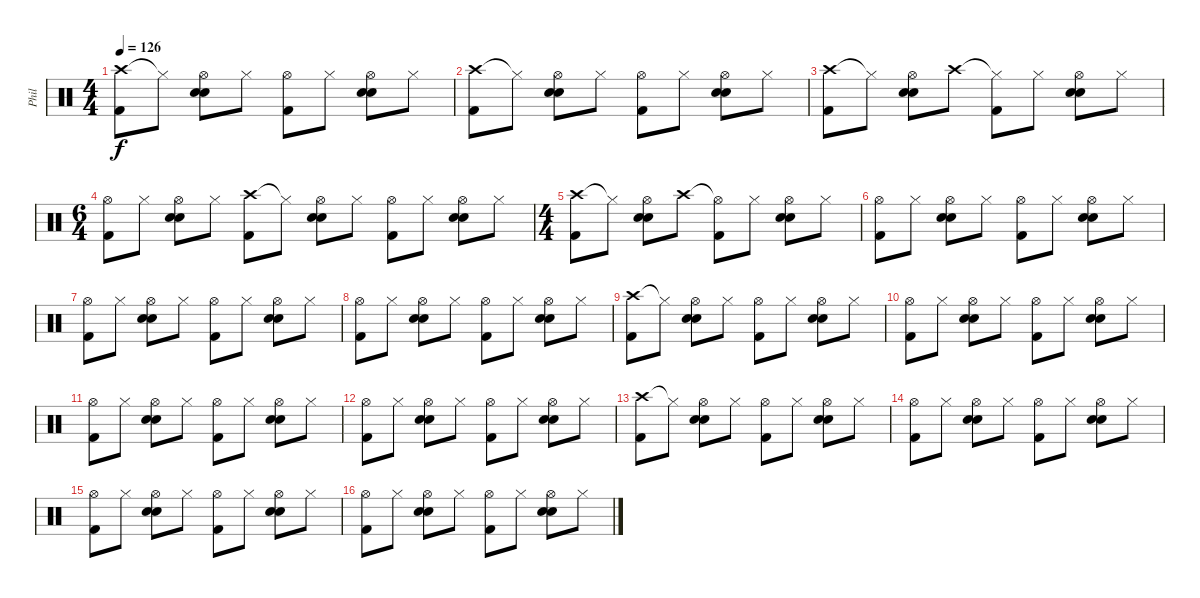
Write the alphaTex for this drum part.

\track ("Phil" "Phil") {instrument percussion}
\staff {score}
\articulation defaults
\ts (4 4)
\tempo 126
\clef neutral
\ks c
("Crash high (hit)" "Kick (hit) 2").8{dy f} "Hi-Hat (closed)"{t}.8 ("Hi-Hat (open)" "Snare (hit) 2" "Electric Snare (hit)").8 "Hi-Hat (closed)".8 ("Hi-Hat (open)" "Kick (hit) 2").8 "Hi-Hat (closed)".8 ("Hi-Hat (open)" "Snare (hit) 2" "Electric Snare (hit)").8 "Hi-Hat (closed)".8 |
("Crash high (hit)" "Kick (hit) 2").8 "Hi-Hat (closed)"{t}.8 ("Hi-Hat (open)" "Snare (hit) 2" "Electric Snare (hit)").8 "Hi-Hat (closed)".8 ("Hi-Hat (open)" "Kick (hit) 2").8 "Hi-Hat (closed)".8 ("Hi-Hat (open)" "Snare (hit) 2" "Electric Snare (hit)").8 "Hi-Hat (closed)".8 |
("Crash high (hit)" "Kick (hit) 2").8 "Hi-Hat (closed)"{t}.8 ("Hi-Hat (open)" "Snare (hit) 2" "Electric Snare (hit)").8 "Crash high (hit)".8 ("Hi-Hat (closed)"{t} "Kick (hit) 2").8 "Hi-Hat (closed)".8 ("Hi-Hat (open)" "Snare (hit) 2" "Electric Snare (hit)").8 "Hi-Hat (closed)".8 |
\ts (6 4)
("Hi-Hat (open)" "Kick (hit) 2").8 "Hi-Hat (closed)".8 ("Hi-Hat (open)" "Snare (hit) 2" "Electric Snare (hit)").8 "Hi-Hat (closed)".8 ("Crash high (hit)" "Kick (hit) 2").8 "Hi-Hat (closed)"{t}.8 ("Hi-Hat (open)" "Snare (hit) 2" "Electric Snare (hit)").8 "Hi-Hat (closed)".8 ("Hi-Hat (open)" "Kick (hit) 2").8 "Hi-Hat (closed)".8 ("Hi-Hat (open)" "Snare (hit) 2" "Electric Snare (hit)").8 "Hi-Hat (closed)".8 |
\ts (4 4)
("Crash high (hit)" "Kick (hit) 2").8 "Hi-Hat (closed)"{t}.8 ("Hi-Hat (open)" "Snare (hit) 2" "Electric Snare (hit)").8 "Crash high (hit)".8 ("Hi-Hat (open)"{t} "Kick (hit) 2").8 "Hi-Hat (closed)".8 ("Hi-Hat (open)" "Snare (hit) 2" "Electric Snare (hit)").8 "Hi-Hat (closed)".8 |
("Hi-Hat (open)" "Kick (hit) 2").8 "Hi-Hat (closed)".8 ("Hi-Hat (open)" "Snare (hit) 2" "Electric Snare (hit)").8 "Hi-Hat (closed)".8 ("Hi-Hat (open)" "Kick (hit) 2").8 "Hi-Hat (closed)".8 ("Hi-Hat (open)" "Snare (hit) 2" "Electric Snare (hit)").8 "Hi-Hat (closed)".8 |
("Hi-Hat (open)" "Kick (hit) 2").8 "Hi-Hat (closed)".8 ("Hi-Hat (open)" "Snare (hit) 2" "Electric Snare (hit)").8 "Hi-Hat (closed)".8 ("Hi-Hat (open)" "Kick (hit) 2").8 "Hi-Hat (closed)".8 ("Hi-Hat (open)" "Snare (hit) 2" "Electric Snare (hit)").8 "Hi-Hat (closed)".8 |
("Hi-Hat (open)" "Kick (hit) 2").8 "Hi-Hat (closed)".8 ("Hi-Hat (open)" "Snare (hit) 2" "Electric Snare (hit)").8 "Hi-Hat (closed)".8 ("Hi-Hat (open)" "Kick (hit) 2").8 "Hi-Hat (closed)".8 ("Hi-Hat (open)" "Snare (hit) 2" "Electric Snare (hit)").8 "Hi-Hat (closed)".8 |
("Crash high (hit)" "Kick (hit) 2").8 "Hi-Hat (closed)"{t}.8 ("Hi-Hat (open)" "Snare (hit) 2" "Electric Snare (hit)").8 "Hi-Hat (closed)".8 ("Hi-Hat (open)" "Kick (hit) 2").8 "Hi-Hat (closed)".8 ("Hi-Hat (open)" "Snare (hit) 2" "Electric Snare (hit)").8 "Hi-Hat (closed)".8 |
("Hi-Hat (open)" "Kick (hit) 2").8 "Hi-Hat (closed)".8 ("Hi-Hat (open)" "Snare (hit) 2" "Electric Snare (hit)").8 "Hi-Hat (closed)".8 ("Hi-Hat (open)" "Kick (hit) 2").8 "Hi-Hat (closed)".8 ("Hi-Hat (open)" "Snare (hit) 2" "Electric Snare (hit)").8 "Hi-Hat (closed)".8 |
("Hi-Hat (open)" "Kick (hit) 2").8 "Hi-Hat (closed)".8 ("Hi-Hat (open)" "Snare (hit) 2" "Electric Snare (hit)").8 "Hi-Hat (closed)".8 ("Hi-Hat (open)" "Kick (hit) 2").8 "Hi-Hat (closed)".8 ("Hi-Hat (open)" "Snare (hit) 2" "Electric Snare (hit)").8 "Hi-Hat (closed)".8 |
("Hi-Hat (open)" "Kick (hit) 2").8 "Hi-Hat (closed)".8 ("Hi-Hat (open)" "Snare (hit) 2" "Electric Snare (hit)").8 "Hi-Hat (closed)".8 ("Hi-Hat (open)" "Kick (hit) 2").8 "Hi-Hat (closed)".8 ("Hi-Hat (open)" "Snare (hit) 2" "Electric Snare (hit)").8 "Hi-Hat (closed)".8 |
("Crash high (hit)" "Kick (hit) 2").8 "Hi-Hat (closed)"{t}.8 ("Hi-Hat (open)" "Snare (hit) 2" "Electric Snare (hit)").8 "Hi-Hat (closed)".8 ("Hi-Hat (open)" "Kick (hit) 2").8 "Hi-Hat (closed)".8 ("Hi-Hat (open)" "Snare (hit) 2" "Electric Snare (hit)").8 "Hi-Hat (closed)".8 |
("Hi-Hat (open)" "Kick (hit) 2").8 "Hi-Hat (closed)".8 ("Hi-Hat (open)" "Snare (hit) 2" "Electric Snare (hit)").8 "Hi-Hat (closed)".8 ("Hi-Hat (open)" "Kick (hit) 2").8 "Hi-Hat (closed)".8 ("Hi-Hat (open)" "Snare (hit) 2" "Electric Snare (hit)").8 "Hi-Hat (closed)".8 |
("Hi-Hat (open)" "Kick (hit) 2").8 "Hi-Hat (closed)".8 ("Hi-Hat (open)" "Snare (hit) 2" "Electric Snare (hit)").8 "Hi-Hat (closed)".8 ("Hi-Hat (open)" "Kick (hit) 2").8 "Hi-Hat (closed)".8 ("Hi-Hat (open)" "Snare (hit) 2" "Electric Snare (hit)").8 "Hi-Hat (closed)".8 |
("Hi-Hat (open)" "Kick (hit) 2").8 "Hi-Hat (closed)".8 ("Hi-Hat (open)" "Snare (hit) 2" "Electric Snare (hit)").8 "Hi-Hat (closed)".8 ("Hi-Hat (open)" "Kick (hit) 2").8 "Hi-Hat (closed)".8 ("Hi-Hat (open)" "Snare (hit) 2" "Electric Snare (hit)").8 "Hi-Hat (closed)".8
